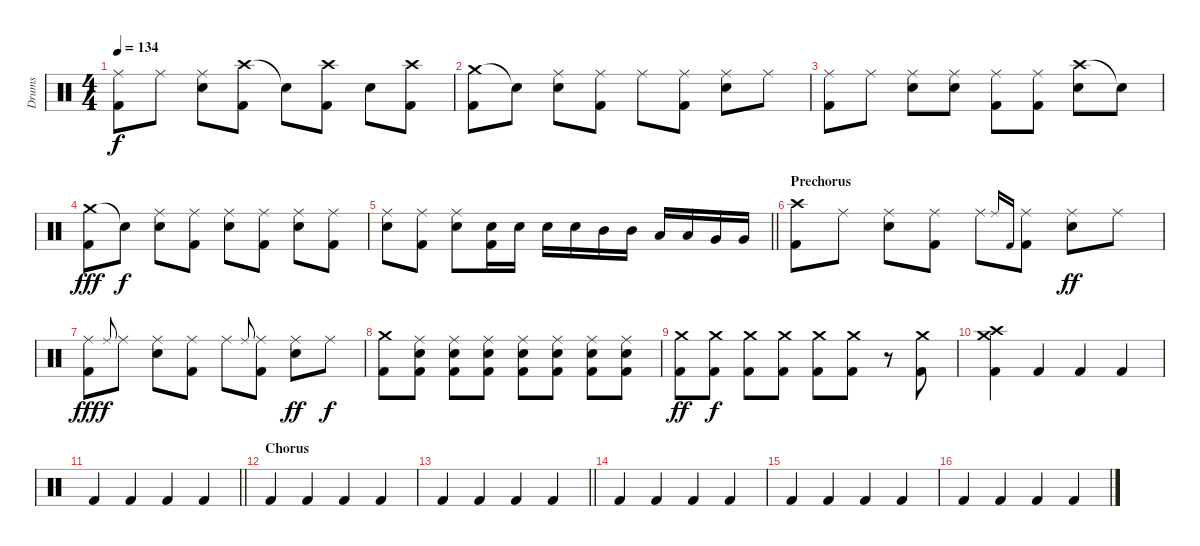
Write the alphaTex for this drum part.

\track ("Drums" "Drums") {instrument percussion}
\staff {score}
\articulation defaults
\ts (4 4)
\tempo 134
\clef neutral
\ks c
("Ride (middle)" "Kick (hit) 2").8{dy f} "Ride (middle)".8 ("Ride (middle)" "Snare (hit) 2").8 ("Crash high (hit)" "Kick (hit) 2").8 "Snare (hit)"{t}.8 ("Crash high (hit)" "Kick (hit) 2").8 "Snare (hit) 2".8 ("Crash high (hit)" "Kick (hit) 2").8 |
("Crash medium (hit)" "Kick (hit) 2").8 "Snare (hit)"{t}.8 ("Ride (middle)" "Snare (hit) 2").8 ("Ride (middle)" "Kick (hit) 2").8 "Ride (middle)".8 ("Ride (middle)" "Kick (hit) 2").8 ("Ride (middle)" "Snare (hit) 2").8 "Ride (middle)".8 |
("Ride (middle)" "Kick (hit) 2").8 "Ride (middle)".8 ("Ride (middle)" "Snare (hit) 2").8 ("Ride (middle)" "Snare (hit) 2").8 ("Ride (middle)" "Kick (hit) 2").8 ("Ride (middle)" "Kick (hit) 2").8 ("Crash high (hit)" "Snare (hit) 2").8 "Snare (hit)"{t}.8 |
("Crash medium (hit)" "Kick (hit) 2").8{dy fff} "Snare (hit)"{t}.8{dy f} ("Ride (middle)" "Snare (hit) 2").8 ("Ride (middle)" "Kick (hit) 2").8 ("Ride (middle)" "Snare (hit) 2").8 ("Ride (middle)" "Kick (hit) 2").8 ("Ride (middle)" "Snare (hit) 2").8 ("Ride (middle)" "Kick (hit) 2").8 |
\barLineRight lightlight
("Ride (middle)" "Snare (hit) 2").8 ("Ride (middle)" "Kick (hit) 2").8 ("Ride (middle)" "Snare (hit) 2").8 ("Snare (hit) 2" "Kick (hit) 2").16 "Snare (hit) 2".16 "Snare (hit) 2".16 "Snare (hit) 2".16 "Mid Tom (hit)".16 "Mid Tom (hit)".16 "Low Tom (hit)".16 "Low Tom (hit)".16 "Very Low Tom (hit)".16 "Very Low Tom (hit)".16 |
\section ("" "Prechorus")
("Crash high (hit)" "Kick (hit) 2").8 "Ride (middle)".8 ("Ride (middle)" "Snare (hit) 2").8 ("Ride (middle)" "Kick (hit) 2").8 "Ride (middle)".8 "Ride (middle)".16{gr onbeat} "Kick (hit) 2".16{gr onbeat} ("Ride (middle)" "Kick (hit) 2").8 ("Ride (middle)" "Snare (hit) 2").8{dy ff} "Ride (middle)".8 |
("Ride (middle)" "Kick (hit) 2").8{dy fff} "Ride (middle)".8{gr onbeat dy f} "Ride (middle)".8 ("Ride (middle)" "Snare (hit) 2").8 ("Ride (middle)" "Kick (hit) 2").8 "Ride (middle)".8 "Ride (middle)".8{gr onbeat} ("Ride (middle)" "Kick (hit) 2").8 ("Ride (middle)" "Snare (hit) 2").8{dy ff} "Ride (middle)".8{dy f} |
("Crash medium (hit)" "Kick (hit) 2").8 ("Ride (middle)" "Snare (hit) 2" "Kick (hit) 2").8 ("Ride (middle)" "Snare (hit) 2" "Kick (hit) 2").8 ("Ride (middle)" "Snare (hit) 2" "Kick (hit) 2").8 ("Ride (middle)" "Snare (hit) 2" "Kick (hit) 2").8 ("Ride (middle)" "Snare (hit) 2" "Kick (hit) 2").8 ("Ride (middle)" "Snare (hit) 2" "Kick (hit) 2").8 ("Ride (middle)" "Snare (hit) 2" "Kick (hit) 2").8 |
("Crash medium (hit)" "Kick (hit) 2").8{dy ff} ("Crash medium (hit)" "Kick (hit) 2").8{dy f} ("Crash medium (hit)" "Kick (hit) 2").8 ("Crash medium (hit)" "Kick (hit) 2").8 ("Crash medium (hit)" "Kick (hit) 2").8 ("Crash medium (hit)" "Kick (hit) 2").8 r.8 ("Crash medium (hit)" "Kick (hit) 2").8 |
("Crash medium (hit)" "Crash high (hit)" "Kick (hit) 2").4 "Kick (hit) 2".4 "Kick (hit) 2".4 "Kick (hit) 2".4 |
\barLineRight lightlight "Kick (hit) 2".4 "Kick (hit) 2".4 "Kick (hit) 2".4 "Kick (hit) 2".4
|
\section ("" "Chorus")
"Kick (hit) 2".4 "Kick (hit) 2".4 "Kick (hit) 2".4 "Kick (hit) 2".4 |
\barLineRight lightlight "Kick (hit) 2".4 "Kick (hit) 2".4 "Kick (hit) 2".4 "Kick (hit) 2".4
|
"Kick (hit) 2".4 "Kick (hit) 2".4 "Kick (hit) 2".4 "Kick (hit) 2".4 |
"Kick (hit) 2".4 "Kick (hit) 2".4 "Kick (hit) 2".4 "Kick (hit) 2".4 |
"Kick (hit) 2".4 "Kick (hit) 2".4 "Kick (hit) 2".4 "Kick (hit) 2".4
